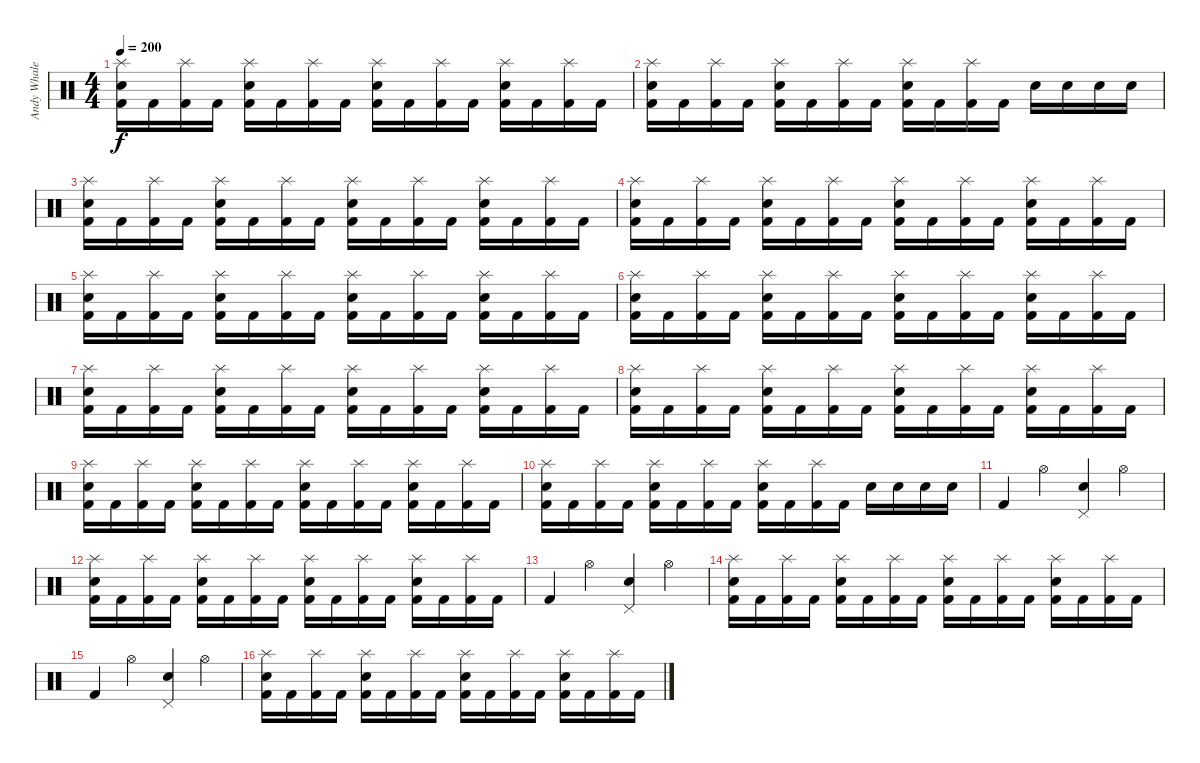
\track ("Andy Whale" "Andy Whale") {instrument percussion}
\staff {score}
\articulation defaults
\ts (4 4)
\tempo 200
\clef neutral
\ks c
("Splash (hit)" "Snare (hit) 2" "Kick (hit) 2").16{dy f} "Kick (hit) 2".16 ("Splash (hit)" "Kick (hit) 2").16 "Kick (hit) 2".16 ("Splash (hit)" "Snare (hit) 2" "Kick (hit) 2").16 "Kick (hit) 2".16 ("Splash (hit)" "Kick (hit) 2").16 "Kick (hit) 2".16 ("Splash (hit)" "Snare (hit) 2" "Kick (hit) 2").16 "Kick (hit) 2".16 ("Splash (hit)" "Kick (hit) 2").16 "Kick (hit) 2".16 ("Splash (hit)" "Snare (hit) 2" "Kick (hit) 2").16 "Kick (hit) 2".16 ("Splash (hit)" "Kick (hit) 2").16 "Kick (hit) 2".16 |
("Splash (hit)" "Snare (hit) 2" "Kick (hit) 2").16 "Kick (hit) 2".16 ("Splash (hit)" "Kick (hit) 2").16 "Kick (hit) 2".16 ("Splash (hit)" "Snare (hit) 2" "Kick (hit) 2").16 "Kick (hit) 2".16 ("Splash (hit)" "Kick (hit) 2").16 "Kick (hit) 2".16 ("Splash (hit)" "Snare (hit) 2" "Kick (hit) 2").16 "Kick (hit) 2".16 ("Splash (hit)" "Kick (hit) 2").16 "Kick (hit) 2".16 "Snare (hit) 2".16 "Snare (hit) 2".16 "Snare (hit) 2".16 "Snare (hit) 2".16 |
("Splash (hit)" "Snare (hit) 2" "Kick (hit) 2").16 "Kick (hit) 2".16 ("Splash (hit)" "Kick (hit) 2").16 "Kick (hit) 2".16 ("Splash (hit)" "Snare (hit) 2" "Kick (hit) 2").16 "Kick (hit) 2".16 ("Splash (hit)" "Kick (hit) 2").16 "Kick (hit) 2".16 ("Splash (hit)" "Snare (hit) 2" "Kick (hit) 2").16 "Kick (hit) 2".16 ("Splash (hit)" "Kick (hit) 2").16 "Kick (hit) 2".16 ("Splash (hit)" "Snare (hit) 2" "Kick (hit) 2").16 "Kick (hit) 2".16 ("Splash (hit)" "Kick (hit) 2").16 "Kick (hit) 2".16 |
("Splash (hit)" "Snare (hit) 2" "Kick (hit) 2").16 "Kick (hit) 2".16 ("Splash (hit)" "Kick (hit) 2").16 "Kick (hit) 2".16 ("Splash (hit)" "Snare (hit) 2" "Kick (hit) 2").16 "Kick (hit) 2".16 ("Splash (hit)" "Kick (hit) 2").16 "Kick (hit) 2".16 ("Splash (hit)" "Snare (hit) 2" "Kick (hit) 2").16 "Kick (hit) 2".16 ("Splash (hit)" "Kick (hit) 2").16 "Kick (hit) 2".16 ("Splash (hit)" "Snare (hit) 2" "Kick (hit) 2").16 "Kick (hit) 2".16 ("Splash (hit)" "Kick (hit) 2").16 "Kick (hit) 2".16 |
("Splash (hit)" "Snare (hit) 2" "Kick (hit) 2").16 "Kick (hit) 2".16 ("Splash (hit)" "Kick (hit) 2").16 "Kick (hit) 2".16 ("Splash (hit)" "Snare (hit) 2" "Kick (hit) 2").16 "Kick (hit) 2".16 ("Splash (hit)" "Kick (hit) 2").16 "Kick (hit) 2".16 ("Splash (hit)" "Snare (hit) 2" "Kick (hit) 2").16 "Kick (hit) 2".16 ("Splash (hit)" "Kick (hit) 2").16 "Kick (hit) 2".16 ("Splash (hit)" "Snare (hit) 2" "Kick (hit) 2").16 "Kick (hit) 2".16 ("Splash (hit)" "Kick (hit) 2").16 "Kick (hit) 2".16 |
("Splash (hit)" "Snare (hit) 2" "Kick (hit) 2").16 "Kick (hit) 2".16 ("Splash (hit)" "Kick (hit) 2").16 "Kick (hit) 2".16 ("Splash (hit)" "Snare (hit) 2" "Kick (hit) 2").16 "Kick (hit) 2".16 ("Splash (hit)" "Kick (hit) 2").16 "Kick (hit) 2".16 ("Splash (hit)" "Snare (hit) 2" "Kick (hit) 2").16 "Kick (hit) 2".16 ("Splash (hit)" "Kick (hit) 2").16 "Kick (hit) 2".16 ("Splash (hit)" "Snare (hit) 2" "Kick (hit) 2").16 "Kick (hit) 2".16 ("Splash (hit)" "Kick (hit) 2").16 "Kick (hit) 2".16 |
("Splash (hit)" "Snare (hit) 2" "Kick (hit) 2").16 "Kick (hit) 2".16 ("Splash (hit)" "Kick (hit) 2").16 "Kick (hit) 2".16 ("Splash (hit)" "Snare (hit) 2" "Kick (hit) 2").16 "Kick (hit) 2".16 ("Splash (hit)" "Kick (hit) 2").16 "Kick (hit) 2".16 ("Splash (hit)" "Snare (hit) 2" "Kick (hit) 2").16 "Kick (hit) 2".16 ("Splash (hit)" "Kick (hit) 2").16 "Kick (hit) 2".16 ("Splash (hit)" "Snare (hit) 2" "Kick (hit) 2").16 "Kick (hit) 2".16 ("Splash (hit)" "Kick (hit) 2").16 "Kick (hit) 2".16 |
("Splash (hit)" "Snare (hit) 2" "Kick (hit) 2").16 "Kick (hit) 2".16 ("Splash (hit)" "Kick (hit) 2").16 "Kick (hit) 2".16 ("Splash (hit)" "Snare (hit) 2" "Kick (hit) 2").16 "Kick (hit) 2".16 ("Splash (hit)" "Kick (hit) 2").16 "Kick (hit) 2".16 ("Splash (hit)" "Snare (hit) 2" "Kick (hit) 2").16 "Kick (hit) 2".16 ("Splash (hit)" "Kick (hit) 2").16 "Kick (hit) 2".16 ("Splash (hit)" "Snare (hit) 2" "Kick (hit) 2").16 "Kick (hit) 2".16 ("Splash (hit)" "Kick (hit) 2").16 "Kick (hit) 2".16 |
("Splash (hit)" "Snare (hit) 2" "Kick (hit) 2").16 "Kick (hit) 2".16 ("Splash (hit)" "Kick (hit) 2").16 "Kick (hit) 2".16 ("Splash (hit)" "Snare (hit) 2" "Kick (hit) 2").16 "Kick (hit) 2".16 ("Splash (hit)" "Kick (hit) 2").16 "Kick (hit) 2".16 ("Splash (hit)" "Snare (hit) 2" "Kick (hit) 2").16 "Kick (hit) 2".16 ("Splash (hit)" "Kick (hit) 2").16 "Kick (hit) 2".16 ("Splash (hit)" "Snare (hit) 2" "Kick (hit) 2").16 "Kick (hit) 2".16 ("Splash (hit)" "Kick (hit) 2").16 "Kick (hit) 2".16 |
("Splash (hit)" "Snare (hit) 2" "Kick (hit) 2").16 "Kick (hit) 2".16 ("Splash (hit)" "Kick (hit) 2").16 "Kick (hit) 2".16 ("Splash (hit)" "Snare (hit) 2" "Kick (hit) 2").16 "Kick (hit) 2".16 ("Splash (hit)" "Kick (hit) 2").16 "Kick (hit) 2".16 ("Splash (hit)" "Snare (hit) 2" "Kick (hit) 2").16 "Kick (hit) 2".16 ("Splash (hit)" "Kick (hit) 2").16 "Kick (hit) 2".16 "Snare (hit) 2".16 "Snare (hit) 2".16 "Snare (hit) 2".16 "Snare (hit) 2".16 |
"Kick (hit) 2".4 "Hi-Hat (open)".4 ("Pedal Hi-Hat (hit)" "Snare (hit) 2").4 "Hi-Hat (open)".4 |
("Splash (hit)" "Snare (hit) 2" "Kick (hit) 2").16 "Kick (hit) 2".16 ("Splash (hit)" "Kick (hit) 2").16 "Kick (hit) 2".16 ("Splash (hit)" "Snare (hit) 2" "Kick (hit) 2").16 "Kick (hit) 2".16 ("Splash (hit)" "Kick (hit) 2").16 "Kick (hit) 2".16 ("Splash (hit)" "Snare (hit) 2" "Kick (hit) 2").16 "Kick (hit) 2".16 ("Splash (hit)" "Kick (hit) 2").16 "Kick (hit) 2".16 ("Splash (hit)" "Snare (hit) 2" "Kick (hit) 2").16 "Kick (hit) 2".16 ("Splash (hit)" "Kick (hit) 2").16 "Kick (hit) 2".16 |
"Kick (hit) 2".4 "Hi-Hat (open)".4 ("Pedal Hi-Hat (hit)" "Snare (hit) 2").4 "Hi-Hat (open)".4 |
("Splash (hit)" "Snare (hit) 2" "Kick (hit) 2").16 "Kick (hit) 2".16 ("Splash (hit)" "Kick (hit) 2").16 "Kick (hit) 2".16 ("Splash (hit)" "Snare (hit) 2" "Kick (hit) 2").16 "Kick (hit) 2".16 ("Splash (hit)" "Kick (hit) 2").16 "Kick (hit) 2".16 ("Splash (hit)" "Snare (hit) 2" "Kick (hit) 2").16 "Kick (hit) 2".16 ("Splash (hit)" "Kick (hit) 2").16 "Kick (hit) 2".16 ("Splash (hit)" "Snare (hit) 2" "Kick (hit) 2").16 "Kick (hit) 2".16 ("Splash (hit)" "Kick (hit) 2").16 "Kick (hit) 2".16 |
"Kick (hit) 2".4 "Hi-Hat (open)".4 ("Pedal Hi-Hat (hit)" "Snare (hit) 2").4 "Hi-Hat (open)".4 |
("Splash (hit)" "Snare (hit) 2" "Kick (hit) 2").16 "Kick (hit) 2".16 ("Splash (hit)" "Kick (hit) 2").16 "Kick (hit) 2".16 ("Splash (hit)" "Snare (hit) 2" "Kick (hit) 2").16 "Kick (hit) 2".16 ("Splash (hit)" "Kick (hit) 2").16 "Kick (hit) 2".16 ("Splash (hit)" "Snare (hit) 2" "Kick (hit) 2").16 "Kick (hit) 2".16 ("Splash (hit)" "Kick (hit) 2").16 "Kick (hit) 2".16 ("Splash (hit)" "Snare (hit) 2" "Kick (hit) 2").16 "Kick (hit) 2".16 ("Splash (hit)" "Kick (hit) 2").16 "Kick (hit) 2".16
